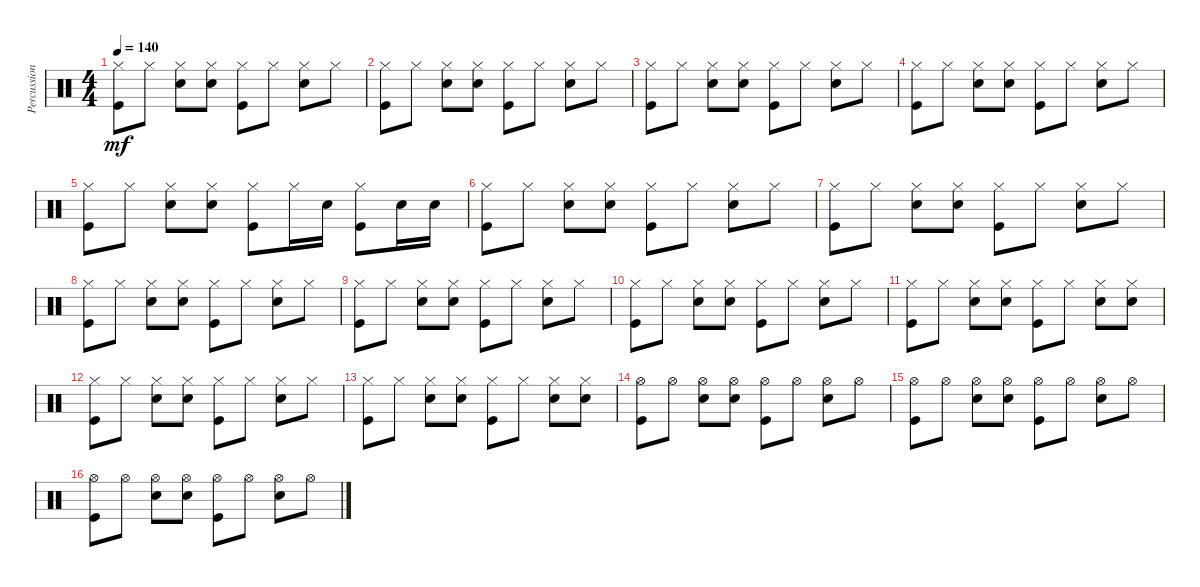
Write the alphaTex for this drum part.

\track ("Percussion" "Percussion") {instrument percussion}
\staff {score}
\articulation defaults
\ts (4 4)
\tempo 140
\clef neutral
\ks c
("Hi-Hat (closed)" "Kick (hit)").8{dy mf} "Hi-Hat (closed)".8 ("Hi-Hat (closed)" "Snare (hit) 2").8 ("Hi-Hat (closed)" "Snare (hit) 2").8 ("Hi-Hat (closed)" "Kick (hit)").8 "Hi-Hat (closed)".8 ("Hi-Hat (closed)" "Snare (hit) 2").8 "Hi-Hat (closed)".8 |
("Hi-Hat (closed)" "Kick (hit)").8 "Hi-Hat (closed)".8 ("Hi-Hat (closed)" "Snare (hit) 2").8 ("Hi-Hat (closed)" "Snare (hit) 2").8 ("Hi-Hat (closed)" "Kick (hit)").8 "Hi-Hat (closed)".8 ("Hi-Hat (closed)" "Snare (hit) 2").8 "Hi-Hat (closed)".8 |
("Hi-Hat (closed)" "Kick (hit)").8 "Hi-Hat (closed)".8 ("Hi-Hat (closed)" "Snare (hit) 2").8 ("Hi-Hat (closed)" "Snare (hit) 2").8 ("Hi-Hat (closed)" "Kick (hit)").8 "Hi-Hat (closed)".8 ("Hi-Hat (closed)" "Snare (hit) 2").8 "Hi-Hat (closed)".8 |
("Hi-Hat (closed)" "Kick (hit)").8 "Hi-Hat (closed)".8 ("Hi-Hat (closed)" "Snare (hit) 2").8 ("Hi-Hat (closed)" "Snare (hit) 2").8 ("Hi-Hat (closed)" "Kick (hit)").8 "Hi-Hat (closed)".8 ("Hi-Hat (closed)" "Snare (hit) 2").8 "Hi-Hat (closed)".8 |
("Hi-Hat (closed)" "Kick (hit)").8 "Hi-Hat (closed)".8 ("Hi-Hat (closed)" "Snare (hit) 2").8 ("Hi-Hat (closed)" "Snare (hit) 2").8 ("Hi-Hat (closed)" "Kick (hit)").8 "Hi-Hat (closed)".16 "Snare (hit) 2".16 ("Hi-Hat (closed)" "Kick (hit)").8 "Snare (hit) 2".16 "Snare (hit) 2".16 |
("Hi-Hat (closed)" "Kick (hit)").8 "Hi-Hat (closed)".8 ("Hi-Hat (closed)" "Snare (hit) 2").8 ("Hi-Hat (closed)" "Snare (hit) 2").8 ("Hi-Hat (closed)" "Kick (hit)").8 "Hi-Hat (closed)".8 ("Hi-Hat (closed)" "Snare (hit) 2").8 "Hi-Hat (closed)".8 |
("Hi-Hat (closed)" "Kick (hit)").8 "Hi-Hat (closed)".8 ("Hi-Hat (closed)" "Snare (hit) 2").8 ("Hi-Hat (closed)" "Snare (hit) 2").8 ("Hi-Hat (closed)" "Kick (hit)").8 "Hi-Hat (closed)".8 ("Hi-Hat (closed)" "Snare (hit) 2").8 "Hi-Hat (closed)".8 |
("Hi-Hat (closed)" "Kick (hit)").8 "Hi-Hat (closed)".8 ("Hi-Hat (closed)" "Snare (hit) 2").8 ("Hi-Hat (closed)" "Snare (hit) 2").8 ("Hi-Hat (closed)" "Kick (hit)").8 "Hi-Hat (closed)".8 ("Hi-Hat (closed)" "Snare (hit) 2").8 "Hi-Hat (closed)".8 |
("Hi-Hat (closed)" "Kick (hit)").8 "Hi-Hat (closed)".8 ("Hi-Hat (closed)" "Snare (hit) 2").8 ("Hi-Hat (closed)" "Snare (hit) 2").8 ("Hi-Hat (closed)" "Kick (hit)").8 "Hi-Hat (closed)".8 ("Hi-Hat (closed)" "Snare (hit) 2").8 "Hi-Hat (closed)".8 |
("Hi-Hat (closed)" "Kick (hit)").8 "Hi-Hat (closed)".8 ("Hi-Hat (closed)" "Snare (hit) 2").8 ("Hi-Hat (closed)" "Snare (hit) 2").8 ("Hi-Hat (closed)" "Kick (hit)").8 "Hi-Hat (closed)".8 ("Hi-Hat (closed)" "Snare (hit) 2").8 "Hi-Hat (closed)".8 |
("Hi-Hat (closed)" "Kick (hit)").8 "Hi-Hat (closed)".8 ("Hi-Hat (closed)" "Snare (hit) 2").8 ("Hi-Hat (closed)" "Snare (hit) 2").8 ("Hi-Hat (closed)" "Kick (hit)").8 "Hi-Hat (closed)".8 ("Hi-Hat (closed)" "Snare (hit) 2").8 ("Hi-Hat (closed)" "Snare (hit) 2").8 |
("Hi-Hat (closed)" "Kick (hit)").8 "Hi-Hat (closed)".8 ("Hi-Hat (closed)" "Snare (hit) 2").8 ("Hi-Hat (closed)" "Snare (hit) 2").8 ("Hi-Hat (closed)" "Kick (hit)").8 "Hi-Hat (closed)".8 ("Hi-Hat (closed)" "Snare (hit) 2").8 "Hi-Hat (closed)".8 |
("Hi-Hat (closed)" "Kick (hit)").8 "Hi-Hat (closed)".8 ("Hi-Hat (closed)" "Snare (hit) 2").8 ("Hi-Hat (closed)" "Snare (hit) 2").8 ("Hi-Hat (closed)" "Kick (hit)").8 "Hi-Hat (closed)".8 ("Hi-Hat (closed)" "Snare (hit) 2").8 ("Hi-Hat (closed)" "Snare (hit) 2").8 |
("Hi-Hat (open)" "Kick (hit)").8{volume 14} "Hi-Hat (open)".8 ("Hi-Hat (open)" "Snare (hit) 2").8 ("Hi-Hat (open)" "Snare (hit) 2").8 ("Hi-Hat (open)" "Kick (hit)").8 "Hi-Hat (open)".8 ("Hi-Hat (open)" "Snare (hit) 2").8 "Hi-Hat (open)".8 |
("Hi-Hat (open)" "Kick (hit)").8{volume 12} "Hi-Hat (open)".8 ("Hi-Hat (open)" "Snare (hit) 2").8 ("Hi-Hat (open)" "Snare (hit) 2").8 ("Hi-Hat (open)" "Kick (hit)").8 "Hi-Hat (open)".8 ("Hi-Hat (open)" "Snare (hit) 2").8 "Hi-Hat (open)".8 |
("Hi-Hat (open)" "Kick (hit)").8{volume 11} "Hi-Hat (open)".8 ("Hi-Hat (open)" "Snare (hit) 2").8 ("Hi-Hat (open)" "Snare (hit) 2").8 ("Hi-Hat (open)" "Kick (hit)").8 "Hi-Hat (open)".8 ("Hi-Hat (open)" "Snare (hit) 2").8 "Hi-Hat (open)".8
